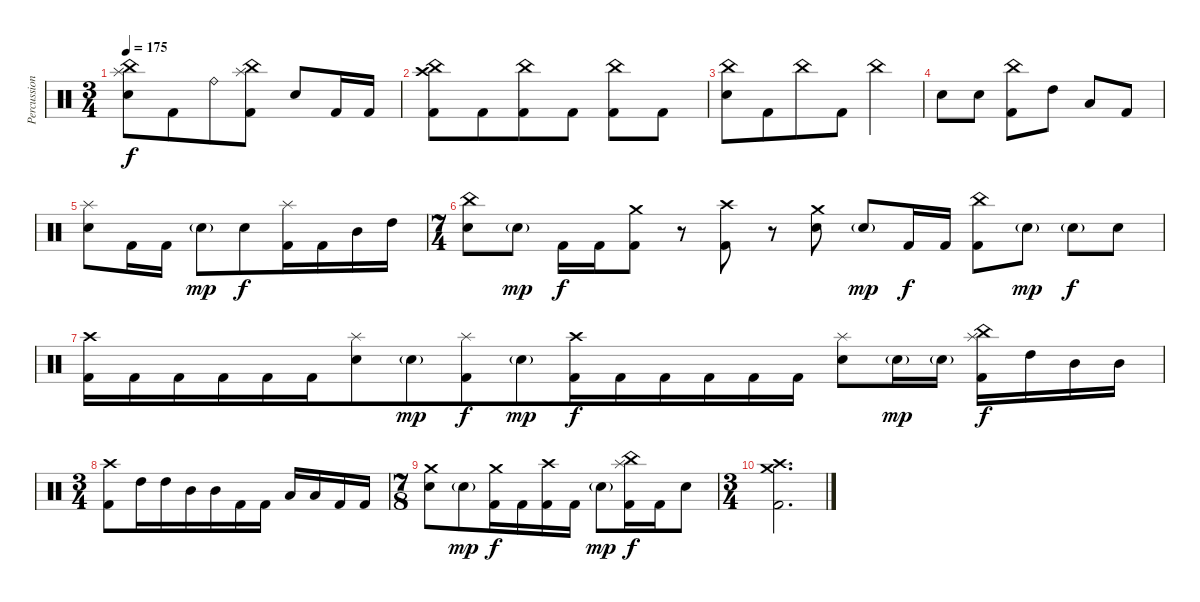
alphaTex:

\track ("Percussion" "Percussion") {instrument percussion bank 7}
\staff {score}
\articulation defaults
\ts (3 4)
\tempo 175
\clef neutral
\ks c
("China (hit)" "Splash (hit)" "Electric Snare (hit)").8{dy f} "Kick (hit) 2".8{beam merge} "Ride (bell)".8{beam merge} ("China (hit)" "Splash (hit)" "Kick (hit) 2").8 "Electric Snare (hit)".8 "Kick (hit) 2".16 "Kick (hit) 2".16 |
("China (hit)" "Crash high (hit)" "Kick (hit) 2").8 "Kick (hit) 2".8{beam merge} ("China (hit)" "Kick (hit) 2").8 "Kick (hit) 2".8 ("China (hit)" "Kick (hit) 2").8 "Kick (hit) 2".8 |
("China (hit)" "Electric Snare (hit)").8 "Kick (hit) 2".8{beam merge} "China (hit)".8 "Kick (hit) 2".8{beam merge} "China (hit)".4 |
"Electric Snare (hit)".8{beam merge} "Electric Snare (hit)".8 ("China (hit)" "Kick (hit) 2").8{beam merge} "High Tom (hit)".8 "Low Tom (hit)".8{beam merge} "Kick (hit) 2".8 |
("Splash (hit)" "Electric Snare (hit)").8 "Kick (hit) 2".16 "Kick (hit) 2".16 "Electric Snare (hit)"{g}.8{dy mp} "Electric Snare (hit)".8{dy f beam merge} ("Splash (hit)" "Kick (hit) 2").16 "Kick (hit) 2".16 "Mid Tom (hit)".16 "High Tom (hit)".16 |
\ts (7 4)
("China (hit)" "Electric Snare (hit)").8{beam merge} "Electric Snare (hit)"{g}.8{dy mp} "Kick (hit) 2".16{dy f beam merge} "Kick (hit) 2".16 ("Crash medium (hit)" "Kick (hit) 2").8 r.8 ("Crash high (hit)" "Kick (hit) 2").8 r.8 ("Crash medium (hit)" "Electric Snare (hit)").8 "Electric Snare (hit)"{g}.8{dy mp} "Kick (hit) 2".16{dy f beam merge} "Kick (hit) 2".16 ("China (hit)" "Kick (hit) 2").8{beam merge} "Electric Snare (hit)"{g}.8{dy mp} "Electric Snare (hit)"{g}.8{dy f beam merge} "Electric Snare (hit)".8 |
("Crash high (hit)" "Kick (hit) 2").16{beam merge} "Kick (hit) 2".16{beam merge} "Kick (hit) 2".16{beam merge} "Kick (hit) 2".16{beam merge} "Kick (hit) 2".16 "Kick (hit) 2".16{beam merge} ("Splash (hit)" "Electric Snare (hit)").8{beam merge} "Electric Snare (hit)"{g}.8{dy mp} ("Splash (hit)" "Kick (hit) 2").8{dy f beam merge} "Electric Snare (hit)"{g}.8{dy mp} ("Crash high (hit)" "Kick (hit) 2").16{dy f} "Kick (hit) 2".16{beam merge} "Kick (hit) 2".16{beam merge} "Kick (hit) 2".16 "Kick (hit) 2".16{beam merge} "Kick (hit) 2".16 ("Splash (hit)" "Electric Snare (hit)").8 "Electric Snare (hit)"{g}.16{dy mp} "Electric Snare (hit)"{g}.16 ("China (hit)" "Splash (hit)" "Kick (hit) 2").16{dy f} "High Tom (hit)".16{beam merge} "Mid Tom (hit)".16{beam merge} "Mid Tom (hit)".16 |
\ts (3 4)
("Crash high (hit)" "Kick (hit) 2").8{beam merge} "High Tom (hit)".16 "High Tom (hit)".16{beam merge} "Mid Tom (hit)".16 "Mid Tom (hit)".16{beam merge} "Kick (hit) 2".16 "Kick (hit) 2".16 "Low Tom (hit)".16 "Low Tom (hit)".16 "Kick (hit) 2".16{beam merge} "Kick (hit) 2".16 |
\ts (7 8)
("Crash medium (hit)" "Electric Snare (hit)").8{beam merge} "Electric Snare (hit)"{g}.8{dy mp} ("Crash medium (hit)" "Kick (hit) 2").16{dy f} "Kick (hit) 2".16 ("Crash high (hit)" "Kick (hit) 2").16{beam merge} "Kick (hit) 2".16 "Electric Snare (hit)"{g}.8{dy mp} ("China (hit)" "Splash (hit)" "Kick (hit) 2").16{dy f} "Kick (hit) 2".16{beam merge} "Electric Snare (hit)".8 |
\ts (3 4)
("Crash medium (hit)" "Crash high (hit)" "Kick (hit) 2").2{d}
